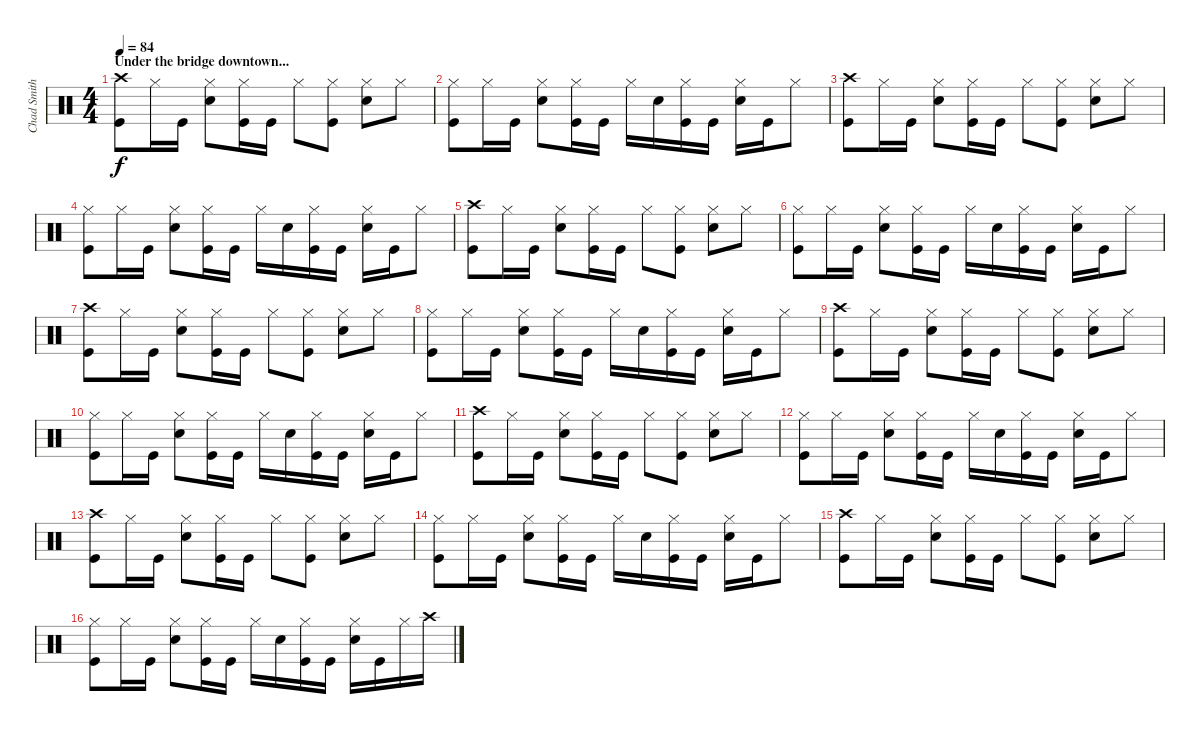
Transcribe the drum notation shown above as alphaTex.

\track ("Chad Smith" "Chad Smith") {instrument percussion}
\staff {score}
\articulation defaults
\ts (4 4)
\section ("" "Under the bridge downtown...")
\tempo 84
\clef neutral
\ks c
("Crash high (hit)" "Kick (hit)").8{dy f} "Hi-Hat (closed)".16 "Kick (hit)".16 ("Hi-Hat (closed)" "Snare (hit) 2").8 ("Hi-Hat (closed)" "Kick (hit)").16 "Kick (hit)".16 "Hi-Hat (closed)".8 ("Hi-Hat (closed)" "Kick (hit)").8 ("Hi-Hat (closed)" "Snare (hit) 2").8 "Hi-Hat (closed)".8 |
("Hi-Hat (closed)" "Kick (hit)").8 "Hi-Hat (closed)".16 "Kick (hit)".16 ("Hi-Hat (closed)" "Snare (hit) 2").8 ("Hi-Hat (closed)" "Kick (hit)").16 "Kick (hit)".16 "Hi-Hat (closed)".16 "Snare (hit) 2".16 ("Hi-Hat (closed)" "Kick (hit)").16 "Kick (hit)".16 ("Hi-Hat (closed)" "Snare (hit) 2").16 "Kick (hit)".16 "Hi-Hat (closed)".8 |
("Crash high (hit)" "Kick (hit)").8 "Hi-Hat (closed)".16 "Kick (hit)".16 ("Hi-Hat (closed)" "Snare (hit) 2").8 ("Hi-Hat (closed)" "Kick (hit)").16 "Kick (hit)".16 "Hi-Hat (closed)".8 ("Hi-Hat (closed)" "Kick (hit)").8 ("Hi-Hat (closed)" "Snare (hit) 2").8 "Hi-Hat (closed)".8 |
("Hi-Hat (closed)" "Kick (hit)").8 "Hi-Hat (closed)".16 "Kick (hit)".16 ("Hi-Hat (closed)" "Snare (hit) 2").8 ("Hi-Hat (closed)" "Kick (hit)").16 "Kick (hit)".16 "Hi-Hat (closed)".16 "Snare (hit) 2".16 ("Hi-Hat (closed)" "Kick (hit)").16 "Kick (hit)".16 ("Hi-Hat (closed)" "Snare (hit) 2").16 "Kick (hit)".16 "Hi-Hat (closed)".8 |
("Crash high (hit)" "Kick (hit)").8 "Hi-Hat (closed)".16 "Kick (hit)".16 ("Hi-Hat (closed)" "Snare (hit) 2").8 ("Hi-Hat (closed)" "Kick (hit)").16 "Kick (hit)".16 "Hi-Hat (closed)".8 ("Hi-Hat (closed)" "Kick (hit)").8 ("Hi-Hat (closed)" "Snare (hit) 2").8 "Hi-Hat (closed)".8 |
("Hi-Hat (closed)" "Kick (hit)").8 "Hi-Hat (closed)".16 "Kick (hit)".16 ("Hi-Hat (closed)" "Snare (hit) 2").8 ("Hi-Hat (closed)" "Kick (hit)").16 "Kick (hit)".16 "Hi-Hat (closed)".16 "Snare (hit) 2".16 ("Hi-Hat (closed)" "Kick (hit)").16 "Kick (hit)".16 ("Hi-Hat (closed)" "Snare (hit) 2").16 "Kick (hit)".16 "Hi-Hat (closed)".8 |
("Crash high (hit)" "Kick (hit)").8 "Hi-Hat (closed)".16 "Kick (hit)".16 ("Hi-Hat (closed)" "Snare (hit) 2").8 ("Hi-Hat (closed)" "Kick (hit)").16 "Kick (hit)".16 "Hi-Hat (closed)".8 ("Hi-Hat (closed)" "Kick (hit)").8 ("Hi-Hat (closed)" "Snare (hit) 2").8 "Hi-Hat (closed)".8 |
("Hi-Hat (closed)" "Kick (hit)").8 "Hi-Hat (closed)".16 "Kick (hit)".16 ("Hi-Hat (closed)" "Snare (hit) 2").8 ("Hi-Hat (closed)" "Kick (hit)").16 "Kick (hit)".16 "Hi-Hat (closed)".16 "Snare (hit) 2".16 ("Hi-Hat (closed)" "Kick (hit)").16 "Kick (hit)".16 ("Hi-Hat (closed)" "Snare (hit) 2").16 "Kick (hit)".16 "Hi-Hat (closed)".8 |
("Crash high (hit)" "Kick (hit)").8 "Hi-Hat (closed)".16 "Kick (hit)".16 ("Hi-Hat (closed)" "Snare (hit) 2").8 ("Hi-Hat (closed)" "Kick (hit)").16 "Kick (hit)".16 "Hi-Hat (closed)".8 ("Hi-Hat (closed)" "Kick (hit)").8 ("Hi-Hat (closed)" "Snare (hit) 2").8 "Hi-Hat (closed)".8 |
("Hi-Hat (closed)" "Kick (hit)").8 "Hi-Hat (closed)".16 "Kick (hit)".16 ("Hi-Hat (closed)" "Snare (hit) 2").8 ("Hi-Hat (closed)" "Kick (hit)").16 "Kick (hit)".16 "Hi-Hat (closed)".16 "Snare (hit) 2".16 ("Hi-Hat (closed)" "Kick (hit)").16 "Kick (hit)".16 ("Hi-Hat (closed)" "Snare (hit) 2").16 "Kick (hit)".16 "Hi-Hat (closed)".8 |
("Crash high (hit)" "Kick (hit)").8 "Hi-Hat (closed)".16 "Kick (hit)".16 ("Hi-Hat (closed)" "Snare (hit) 2").8 ("Hi-Hat (closed)" "Kick (hit)").16 "Kick (hit)".16 "Hi-Hat (closed)".8 ("Hi-Hat (closed)" "Kick (hit)").8 ("Hi-Hat (closed)" "Snare (hit) 2").8 "Hi-Hat (closed)".8 |
("Hi-Hat (closed)" "Kick (hit)").8 "Hi-Hat (closed)".16 "Kick (hit)".16 ("Hi-Hat (closed)" "Snare (hit) 2").8 ("Hi-Hat (closed)" "Kick (hit)").16 "Kick (hit)".16 "Hi-Hat (closed)".16 "Snare (hit) 2".16 ("Hi-Hat (closed)" "Kick (hit)").16 "Kick (hit)".16 ("Hi-Hat (closed)" "Snare (hit) 2").16 "Kick (hit)".16 "Hi-Hat (closed)".8 |
("Crash high (hit)" "Kick (hit)").8 "Hi-Hat (closed)".16 "Kick (hit)".16 ("Hi-Hat (closed)" "Snare (hit) 2").8 ("Hi-Hat (closed)" "Kick (hit)").16 "Kick (hit)".16 "Hi-Hat (closed)".8 ("Hi-Hat (closed)" "Kick (hit)").8 ("Hi-Hat (closed)" "Snare (hit) 2").8 "Hi-Hat (closed)".8 |
("Hi-Hat (closed)" "Kick (hit)").8 "Hi-Hat (closed)".16 "Kick (hit)".16 ("Hi-Hat (closed)" "Snare (hit) 2").8 ("Hi-Hat (closed)" "Kick (hit)").16 "Kick (hit)".16 "Hi-Hat (closed)".16 "Snare (hit) 2".16 ("Hi-Hat (closed)" "Kick (hit)").16 "Kick (hit)".16 ("Hi-Hat (closed)" "Snare (hit) 2").16 "Kick (hit)".16 "Hi-Hat (closed)".8 |
("Crash high (hit)" "Kick (hit)").8 "Hi-Hat (closed)".16 "Kick (hit)".16 ("Hi-Hat (closed)" "Snare (hit) 2").8 ("Hi-Hat (closed)" "Kick (hit)").16 "Kick (hit)".16 "Hi-Hat (closed)".8 ("Hi-Hat (closed)" "Kick (hit)").8 ("Hi-Hat (closed)" "Snare (hit) 2").8 "Hi-Hat (closed)".8 |
("Hi-Hat (closed)" "Kick (hit)").8 "Hi-Hat (closed)".16 "Kick (hit)".16 ("Hi-Hat (closed)" "Snare (hit) 2").8 ("Hi-Hat (closed)" "Kick (hit)").16 "Kick (hit)".16 "Hi-Hat (closed)".16 "Snare (hit) 2".16 ("Hi-Hat (closed)" "Kick (hit)").16 "Kick (hit)".16 ("Hi-Hat (closed)" "Snare (hit) 2").16 "Kick (hit)".16 "Hi-Hat (closed)".16 "Crash high (hit)".16
